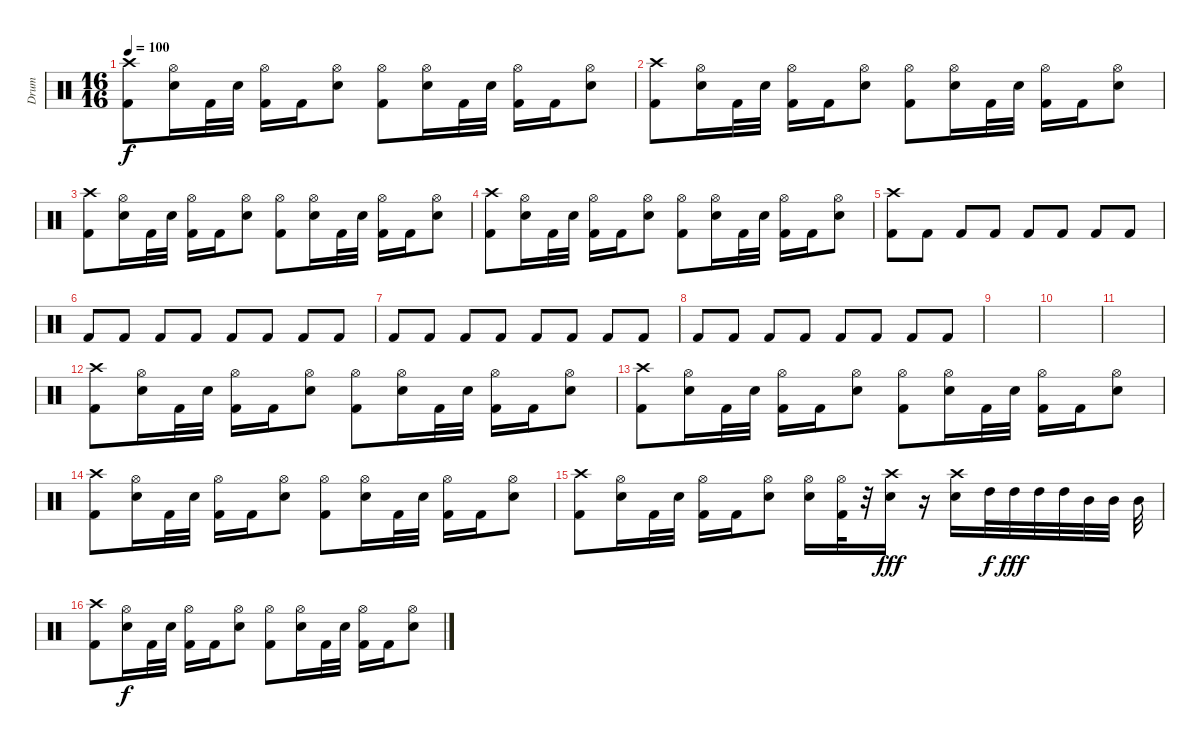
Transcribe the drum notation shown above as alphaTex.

\track ("Drum" "Drum") {instrument percussion}
\staff {score}
\articulation defaults
\ts (16 16)
\tempo 100
\clef neutral
\ks aminor
("Crash high (hit)" "Kick (hit) 2").8{dy f} ("Hi-Hat (open)" "Snare (hit) 2").16 "Kick (hit) 2".32 "Snare (hit) 2".32 ("Hi-Hat (open)" "Kick (hit) 2").16 "Kick (hit) 2".16 ("Hi-Hat (open)" "Snare (hit) 2").8 ("Hi-Hat (open)" "Kick (hit) 2").8 ("Hi-Hat (open)" "Snare (hit) 2").16 "Kick (hit) 2".32 "Snare (hit) 2".32 ("Hi-Hat (open)" "Kick (hit) 2").16 "Kick (hit) 2".16 ("Hi-Hat (open)" "Snare (hit) 2").8 |
("Crash high (hit)" "Kick (hit) 2").8 ("Hi-Hat (open)" "Snare (hit) 2").16 "Kick (hit) 2".32 "Snare (hit) 2".32 ("Hi-Hat (open)" "Kick (hit) 2").16 "Kick (hit) 2".16 ("Hi-Hat (open)" "Snare (hit) 2").8 ("Hi-Hat (open)" "Kick (hit) 2").8 ("Hi-Hat (open)" "Snare (hit) 2").16 "Kick (hit) 2".32 "Snare (hit) 2".32 ("Hi-Hat (open)" "Kick (hit) 2").16 "Kick (hit) 2".16 ("Hi-Hat (open)" "Snare (hit) 2").8 |
("Crash high (hit)" "Kick (hit) 2").8 ("Hi-Hat (open)" "Snare (hit) 2").16 "Kick (hit) 2".32 "Snare (hit) 2".32 ("Hi-Hat (open)" "Kick (hit) 2").16 "Kick (hit) 2".16 ("Hi-Hat (open)" "Snare (hit) 2").8 ("Hi-Hat (open)" "Kick (hit) 2").8 ("Hi-Hat (open)" "Snare (hit) 2").16 "Kick (hit) 2".32 "Snare (hit) 2".32 ("Hi-Hat (open)" "Kick (hit) 2").16 "Kick (hit) 2".16 ("Hi-Hat (open)" "Snare (hit) 2").8 |
("Crash high (hit)" "Kick (hit) 2").8 ("Hi-Hat (open)" "Snare (hit) 2").16 "Kick (hit) 2".32 "Snare (hit) 2".32 ("Hi-Hat (open)" "Kick (hit) 2").16 "Kick (hit) 2".16 ("Hi-Hat (open)" "Snare (hit) 2").8 ("Hi-Hat (open)" "Kick (hit) 2").8 ("Hi-Hat (open)" "Snare (hit) 2").16 "Kick (hit) 2".32 "Snare (hit) 2".32 ("Hi-Hat (open)" "Kick (hit) 2").16 "Kick (hit) 2".16 ("Hi-Hat (open)" "Snare (hit) 2").8 |
("Crash high (hit)" "Kick (hit) 2").8 "Kick (hit) 2".8 "Kick (hit) 2".8 "Kick (hit) 2".8 "Kick (hit) 2".8 "Kick (hit) 2".8 "Kick (hit) 2".8 "Kick (hit) 2".8 |
"Kick (hit) 2".8 "Kick (hit) 2".8 "Kick (hit) 2".8 "Kick (hit) 2".8 "Kick (hit) 2".8 "Kick (hit) 2".8 "Kick (hit) 2".8 "Kick (hit) 2".8 |
"Kick (hit) 2".8 "Kick (hit) 2".8 "Kick (hit) 2".8 "Kick (hit) 2".8 "Kick (hit) 2".8 "Kick (hit) 2".8 "Kick (hit) 2".8 "Kick (hit) 2".8 |
"Kick (hit) 2".8 "Kick (hit) 2".8 "Kick (hit) 2".8 "Kick (hit) 2".8 "Kick (hit) 2".8 "Kick (hit) 2".8 "Kick (hit) 2".8 "Kick (hit) 2".8 |
|
|
|
("Crash high (hit)" "Kick (hit) 2").8 ("Hi-Hat (open)" "Snare (hit) 2").16 "Kick (hit) 2".32 "Snare (hit) 2".32 ("Hi-Hat (open)" "Kick (hit) 2").16 "Kick (hit) 2".16 ("Hi-Hat (open)" "Snare (hit) 2").8 ("Hi-Hat (open)" "Kick (hit) 2").8 ("Hi-Hat (open)" "Snare (hit) 2").16 "Kick (hit) 2".32 "Snare (hit) 2".32 ("Hi-Hat (open)" "Kick (hit) 2").16 "Kick (hit) 2".16 ("Hi-Hat (open)" "Snare (hit) 2").8 |
("Crash high (hit)" "Kick (hit) 2").8 ("Hi-Hat (open)" "Snare (hit) 2").16 "Kick (hit) 2".32 "Snare (hit) 2".32 ("Hi-Hat (open)" "Kick (hit) 2").16 "Kick (hit) 2".16 ("Hi-Hat (open)" "Snare (hit) 2").8 ("Hi-Hat (open)" "Kick (hit) 2").8 ("Hi-Hat (open)" "Snare (hit) 2").16 "Kick (hit) 2".32 "Snare (hit) 2".32 ("Hi-Hat (open)" "Kick (hit) 2").16 "Kick (hit) 2".16 ("Hi-Hat (open)" "Snare (hit) 2").8 |
("Crash high (hit)" "Kick (hit) 2").8 ("Hi-Hat (open)" "Snare (hit) 2").16 "Kick (hit) 2".32 "Snare (hit) 2".32 ("Hi-Hat (open)" "Kick (hit) 2").16 "Kick (hit) 2".16 ("Hi-Hat (open)" "Snare (hit) 2").8 ("Hi-Hat (open)" "Kick (hit) 2").8 ("Hi-Hat (open)" "Snare (hit) 2").16 "Kick (hit) 2".32 "Snare (hit) 2".32 ("Hi-Hat (open)" "Kick (hit) 2").16 "Kick (hit) 2".16 ("Hi-Hat (open)" "Snare (hit) 2").8 |
("Crash high (hit)" "Kick (hit) 2").8 ("Hi-Hat (open)" "Snare (hit) 2").16 "Kick (hit) 2".32 "Snare (hit) 2".32 ("Hi-Hat (open)" "Kick (hit) 2").16 "Kick (hit) 2".16 ("Hi-Hat (open)" "Snare (hit) 2").8 ("Hi-Hat (open)" "Snare (hit) 2").16 ("Hi-Hat (open)" "Kick (hit) 2").32 r.32 ("Crash high (hit)" "Snare (hit) 2").16{dy fff} r.16 ("Crash high (hit)" "Snare (hit) 2").16 "High Tom (hit)".32{dy f} "High Tom (hit)".32{dy fff} "High Tom (hit)".32 "High Tom (hit)".32 "Mid Tom (hit)".32 "Mid Tom (hit)".32 "Mid Tom (hit)".32 |
("Crash high (hit)" "Kick (hit) 2").8 ("Hi-Hat (open)" "Snare (hit) 2").16{dy f} "Kick (hit) 2".32 "Snare (hit) 2".32 ("Hi-Hat (open)" "Kick (hit) 2").16 "Kick (hit) 2".16 ("Hi-Hat (open)" "Snare (hit) 2").8 ("Hi-Hat (open)" "Kick (hit) 2").8 ("Hi-Hat (open)" "Snare (hit) 2").16 "Kick (hit) 2".32 "Snare (hit) 2".32 ("Hi-Hat (open)" "Kick (hit) 2").16 "Kick (hit) 2".16 ("Hi-Hat (open)" "Snare (hit) 2").8
